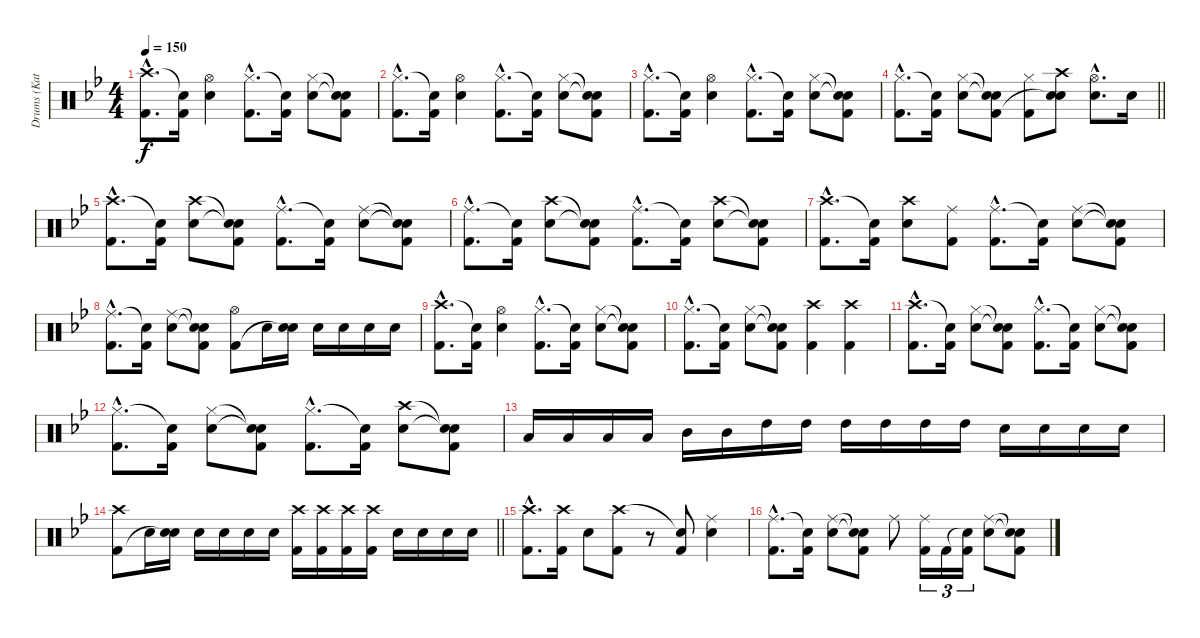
\track ("Drums (Katsuji)" "Drums (Kat") {instrument percussion}
\staff {score}
\articulation defaults
\ts (4 4)
\tempo 150
\clef neutral
\ks bb
("Crash high (hit)"{hac} "Kick (hit) 2"{hac}).8{d dy f} ("Snare (hit)"{t} "Kick (hit) 2").16 ("Hi-Hat (open)" "Snare (hit) 2").4 ("Hi-Hat (closed)"{hac} "Kick (hit) 2"{hac}).8{d} ("Snare (hit)"{t} "Kick (hit) 2").16 ("Hi-Hat (closed)" "Snare (hit) 2").8 ("Snare (hit)"{t} "Snare (hit)"{t} "Kick (hit) 2").8 |
("Hi-Hat (closed)"{hac} "Kick (hit) 2"{hac}).8{d} ("Snare (hit)"{t} "Kick (hit) 2").16 ("Hi-Hat (open)" "Snare (hit) 2").4 ("Hi-Hat (closed)"{hac} "Kick (hit) 2"{hac}).8{d} ("Snare (hit)"{t} "Kick (hit) 2").16 ("Hi-Hat (closed)" "Snare (hit) 2").8 ("Snare (hit)"{t} "Snare (hit)"{t} "Kick (hit) 2").8 |
("Hi-Hat (closed)"{hac} "Kick (hit) 2"{hac}).8{d} ("Snare (hit)"{t} "Kick (hit) 2").16 ("Hi-Hat (open)" "Snare (hit) 2").4 ("Hi-Hat (closed)"{hac} "Kick (hit) 2"{hac}).8{d} ("Snare (hit)"{t} "Kick (hit) 2").16 ("Hi-Hat (closed)" "Snare (hit) 2").8 ("Snare (hit)"{t} "Snare (hit)"{t} "Kick (hit) 2").8 |
\barLineRight lightlight
("Hi-Hat (closed)"{hac} "Kick (hit) 2"{hac}).8{d} ("Snare (hit)"{t} "Kick (hit) 2").16 ("Hi-Hat (closed)" "Snare (hit) 2").8 ("Snare (hit)"{t} "Snare (hit)"{t} "Kick (hit) 2").8 ("Hi-Hat (closed)" "Kick (hit) 2").8 ("Crash high (hit)" "Snare (hit) 2" "Snare (hit)"{t}).8 ("Hi-Hat (open)"{hac} "Snare (hit) 2"{hac}).8{d} "Snare (hit) 2".16 |
("Crash high (hit)"{hac} "Kick (hit) 2"{hac}).8{d} ("Snare (hit)"{t} "Kick (hit) 2").16 ("Crash high (hit)" "Snare (hit) 2").8 ("Snare (hit)"{t} "Snare (hit)"{t} "Kick (hit) 2").8 ("Ride (middle)"{hac} "Kick (hit) 2"{hac}).8{d} ("Snare (hit)"{t} "Kick (hit) 2").16 ("Ride (middle)" "Snare (hit) 2").8 ("Snare (hit)"{t} "Snare (hit)"{t} "Kick (hit) 2").8 |
("Ride (middle)"{hac} "Kick (hit) 2"{hac}).8{d} ("Snare (hit)"{t} "Kick (hit) 2").16 ("Crash high (hit)" "Snare (hit) 2").8 ("Snare (hit)"{t} "Snare (hit)"{t} "Kick (hit) 2").8 ("Ride (middle)"{hac} "Kick (hit) 2"{hac}).8{d} ("Snare (hit)"{t} "Kick (hit) 2").16 ("Crash high (hit)" "Snare (hit) 2").8 ("Snare (hit)"{t} "Snare (hit)"{t} "Kick (hit) 2").8 |
("Crash high (hit)"{hac} "Kick (hit) 2"{hac}).8{d} ("Snare (hit)"{t} "Kick (hit) 2").16 ("Crash high (hit)" "Snare (hit) 2").8 ("Ride (middle)" "Kick (hit) 2").8 ("Ride (middle)"{hac} "Kick (hit) 2"{hac}).8{d} ("Snare (hit)"{t} "Kick (hit) 2").16 ("Ride (middle)" "Snare (hit) 2").8 ("Snare (hit)"{t} "Snare (hit)"{t} "Kick (hit) 2").8 |
("Ride (middle)"{hac} "Kick (hit) 2"{hac}).8{d} ("Snare (hit)"{t} "Kick (hit) 2").16 ("Ride (middle)" "Snare (hit) 2").8 ("Snare (hit)"{t} "Snare (hit)"{t} "Kick (hit) 2").8 ("Hi-Hat (open)" "Kick (hit) 2").8 "Snare (hit) 2".16 ("Snare (hit) 2" "Snare (hit)"{t}).16 "Snare (hit) 2".16 "Snare (hit) 2".16 "Snare (hit) 2".16 "Snare (hit) 2".16 |
("Crash high (hit)"{hac} "Kick (hit) 2"{hac}).8{d} ("Snare (hit)"{t} "Kick (hit) 2").16 ("Hi-Hat (open)" "Snare (hit) 2").4 ("Hi-Hat (closed)"{hac} "Kick (hit) 2"{hac}).8{d} ("Snare (hit)"{t} "Kick (hit) 2").16 ("Hi-Hat (closed)" "Snare (hit) 2").8 ("Snare (hit)"{t} "Snare (hit)"{t} "Kick (hit) 2").8 |
("Hi-Hat (closed)"{hac} "Kick (hit) 2"{hac}).8{d} ("Snare (hit)"{t} "Kick (hit) 2").16 ("Hi-Hat (closed)" "Snare (hit) 2").8 ("Snare (hit)"{t} "Snare (hit)"{t} "Kick (hit) 2").8 ("Crash high (hit)" "Kick (hit) 2").4 ("Crash high (hit)" "Kick (hit) 2").4 |
("Crash high (hit)"{hac} "Kick (hit) 2"{hac}).8{d} ("Snare (hit)"{t} "Kick (hit) 2").16 ("Hi-Hat (closed)" "Snare (hit) 2").8 ("Snare (hit)"{t} "Snare (hit)"{t} "Kick (hit) 2").8 ("Hi-Hat (closed)"{hac} "Kick (hit) 2"{hac}).8{d} ("Snare (hit)"{t} "Kick (hit) 2").16 ("Hi-Hat (closed)" "Snare (hit) 2").8 ("Snare (hit)"{t} "Snare (hit)"{t} "Kick (hit) 2").8 |
("Hi-Hat (closed)"{hac} "Kick (hit) 2"{hac}).8{d} ("Snare (hit)"{t} "Kick (hit) 2").16 ("Hi-Hat (closed)" "Snare (hit) 2").8 ("Snare (hit)"{t} "Snare (hit)"{t} "Kick (hit) 2").8 ("Hi-Hat (closed)"{hac} "Kick (hit) 2"{hac}).8{d} ("Snare (hit)"{t} "Kick (hit) 2").16 ("Crash high (hit)" "Snare (hit) 2").8 ("Snare (hit)"{t} "Snare (hit)"{t} "Kick (hit) 2").8 |
"Low Tom (hit)".16 "Low Tom (hit)".16 "Low Tom (hit)".16 "Low Tom (hit)".16 "Mid Tom (hit)".16 "Mid Tom (hit)".16 "High Tom (hit)".16 "High Tom (hit)".16 "High Tom (hit)".16 "High Tom (hit)".16 "High Tom (hit)".16 "High Tom (hit)".16 "Snare (hit) 2".16 "Snare (hit) 2".16 "Snare (hit) 2".16 "Snare (hit) 2".16 |
\barLineRight lightlight
("Crash high (hit)" "Kick (hit) 2").8 "Snare (hit) 2".16 ("Snare (hit) 2" "Snare (hit)"{t}).16 "Snare (hit) 2".16 "Snare (hit) 2".16 "Snare (hit) 2".16 "Snare (hit) 2".16 ("Crash high (hit)" "Kick (hit) 2").16 ("Crash high (hit)" "Kick (hit) 2").16 ("Crash high (hit)" "Kick (hit) 2").16 ("Crash high (hit)" "Kick (hit) 2").16 "Snare (hit) 2".16 "Snare (hit) 2".16 "Snare (hit) 2".16 "Snare (hit) 2".16 |
("Crash high (hit)"{hac} "Kick (hit) 2"{hac}).8{d} ("Crash high (hit)" "Kick (hit) 2").16 "Snare (hit) 2".8 ("Crash high (hit)" "Kick (hit) 2").8 r.8 ("Snare (hit)"{t} "Kick (hit) 2").8 ("Ride (middle)" "Snare (hit) 2").4 |
("Ride (middle)"{hac} "Kick (hit) 2"{hac}).8{d} ("Snare (hit)"{t} "Kick (hit) 2").16 ("Ride (middle)" "Snare (hit) 2").8 ("Snare (hit)"{t} "Snare (hit)"{t} "Kick (hit) 2").8 "Ride (middle)".8 ("Ride (middle)" "Kick (hit) 2").16{tu (3 2)} "Kick (hit) 2".16{tu (3 2)} ("Snare (hit)"{t} "Kick (hit) 2").16{tu (3 2)} ("Ride (middle)" "Snare (hit) 2").8 ("Snare (hit)"{t} "Snare (hit)"{t} "Kick (hit) 2").8
